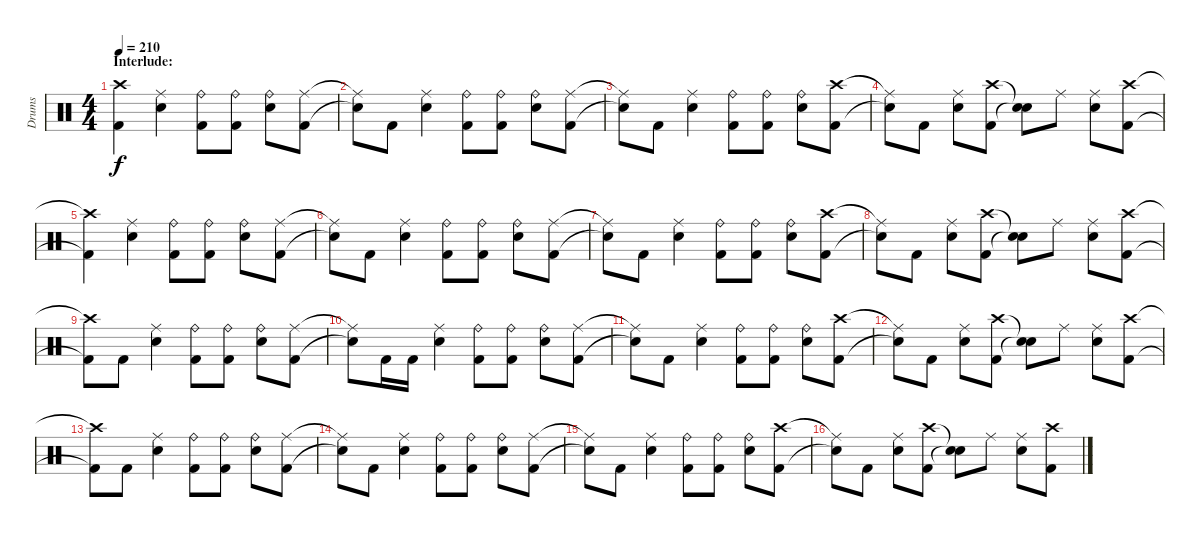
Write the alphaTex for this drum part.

\track ("Drums" "Drums") {instrument percussion}
\staff {score}
\articulation defaults
\ts (4 4)
\section ("" "Interlude:")
\tempo 210
\clef neutral
\ks c
("Crash high (hit)" "Kick (hit) 2").4{dy f} ("Ride (middle)" "Electric Snare (hit)").4 ("Ride (bell)" "Kick (hit) 2").8 ("Ride (bell)" "Kick (hit) 2").8 ("Ride (bell)" "Electric Snare (hit)").8 ("Ride (middle)" "Kick (hit) 2").8 |
("Ride (middle)"{t} "Snare (hit)"{t}).8 "Kick (hit) 2".8 ("Ride (middle)" "Electric Snare (hit)").4 ("Ride (bell)" "Kick (hit) 2").8 ("Ride (bell)" "Kick (hit) 2").8 ("Ride (bell)" "Electric Snare (hit)").8 ("Ride (middle)" "Kick (hit) 2").8 |
("Ride (middle)"{t} "Snare (hit)"{t}).8 "Kick (hit) 2".8 ("Ride (middle)" "Electric Snare (hit)").4 ("Ride (bell)" "Kick (hit) 2").8 ("Ride (bell)" "Kick (hit) 2").8 ("Ride (bell)" "Electric Snare (hit)").8 ("Crash high (hit)" "Kick (hit) 2").8 |
("Ride (middle)"{t} "Snare (hit)"{t}).8 "Kick (hit) 2".8 ("Ride (middle)" "Electric Snare (hit)").8 ("Crash high (hit)" "Kick (hit) 2").8 ("Snare (hit)"{t} "Snare (hit)"{t}).8 "Ride (middle)".8 ("Ride (middle)" "Electric Snare (hit)").8 ("Crash high (hit)" "Kick (hit) 2").8 |
("Crash high (hit)"{t} "Kick (hit) 2"{t}).4 ("Ride (middle)" "Electric Snare (hit)").4 ("Ride (bell)" "Kick (hit) 2").8 ("Ride (bell)" "Kick (hit) 2").8 ("Ride (bell)" "Electric Snare (hit)").8 ("Ride (middle)" "Kick (hit) 2").8 |
("Ride (middle)"{t} "Snare (hit)"{t}).8 "Kick (hit) 2".8 ("Ride (middle)" "Electric Snare (hit)").4 ("Ride (bell)" "Kick (hit) 2").8 ("Ride (bell)" "Kick (hit) 2").8 ("Ride (bell)" "Electric Snare (hit)").8 ("Ride (middle)" "Kick (hit) 2").8 |
("Ride (middle)"{t} "Snare (hit)"{t}).8 "Kick (hit) 2".8 ("Ride (middle)" "Electric Snare (hit)").4 ("Ride (bell)" "Kick (hit) 2").8 ("Ride (bell)" "Kick (hit) 2").8 ("Ride (bell)" "Electric Snare (hit)").8 ("Crash high (hit)" "Kick (hit) 2").8 |
("Ride (middle)"{t} "Snare (hit)"{t}).8 "Kick (hit) 2".8 ("Ride (middle)" "Electric Snare (hit)").8 ("Crash high (hit)" "Kick (hit) 2").8 ("Snare (hit)"{t} "Snare (hit)"{t}).8 "Ride (middle)".8 ("Ride (middle)" "Electric Snare (hit)").8 ("Crash high (hit)" "Kick (hit) 2").8 |
("Crash high (hit)"{t} "Kick (hit) 2"{t}).8 "Kick (hit) 2".8 ("Ride (middle)" "Electric Snare (hit)").4 ("Ride (bell)" "Kick (hit) 2").8 ("Ride (bell)" "Kick (hit) 2").8 ("Ride (bell)" "Electric Snare (hit)").8 ("Ride (middle)" "Kick (hit) 2").8 |
("Ride (middle)"{t} "Snare (hit)"{t}).8 "Kick (hit) 2".16 "Kick (hit) 2".16 ("Ride (middle)" "Electric Snare (hit)").4 ("Ride (bell)" "Kick (hit) 2").8 ("Ride (bell)" "Kick (hit) 2").8 ("Ride (bell)" "Electric Snare (hit)").8 ("Ride (middle)" "Kick (hit) 2").8 |
("Ride (middle)"{t} "Snare (hit)"{t}).8 "Kick (hit) 2".8 ("Ride (middle)" "Electric Snare (hit)").4 ("Ride (bell)" "Kick (hit) 2").8 ("Ride (bell)" "Kick (hit) 2").8 ("Ride (bell)" "Electric Snare (hit)").8 ("Crash high (hit)" "Kick (hit) 2").8 |
("Ride (middle)"{t} "Snare (hit)"{t}).8 "Kick (hit) 2".8 ("Ride (middle)" "Electric Snare (hit)").8 ("Crash high (hit)" "Kick (hit) 2").8 ("Snare (hit)"{t} "Snare (hit)"{t}).8 "Ride (middle)".8 ("Ride (middle)" "Electric Snare (hit)").8 ("Crash high (hit)" "Kick (hit) 2").8 |
("Crash high (hit)"{t} "Kick (hit) 2"{t}).8 "Kick (hit) 2".8 ("Ride (middle)" "Electric Snare (hit)").4 ("Ride (bell)" "Kick (hit) 2").8 ("Ride (bell)" "Kick (hit) 2").8 ("Ride (bell)" "Electric Snare (hit)").8 ("Ride (middle)" "Kick (hit) 2").8 |
("Ride (middle)"{t} "Snare (hit)"{t}).8 "Kick (hit) 2".8 ("Ride (middle)" "Electric Snare (hit)").4 ("Ride (bell)" "Kick (hit) 2").8 ("Ride (bell)" "Kick (hit) 2").8 ("Ride (bell)" "Electric Snare (hit)").8 ("Ride (middle)" "Kick (hit) 2").8 |
("Ride (middle)"{t} "Snare (hit)"{t}).8 "Kick (hit) 2".8 ("Ride (middle)" "Electric Snare (hit)").4 ("Ride (bell)" "Kick (hit) 2").8 ("Ride (bell)" "Kick (hit) 2").8 ("Ride (bell)" "Electric Snare (hit)").8 ("Crash high (hit)" "Kick (hit) 2").8 |
("Ride (middle)"{t} "Snare (hit)"{t}).8 "Kick (hit) 2".8 ("Ride (middle)" "Electric Snare (hit)").8 ("Crash high (hit)" "Kick (hit) 2").8 ("Snare (hit)"{t} "Snare (hit)"{t}).8 "Ride (middle)".8 ("Ride (middle)" "Electric Snare (hit)").8 ("Crash high (hit)" "Kick (hit) 2").8
